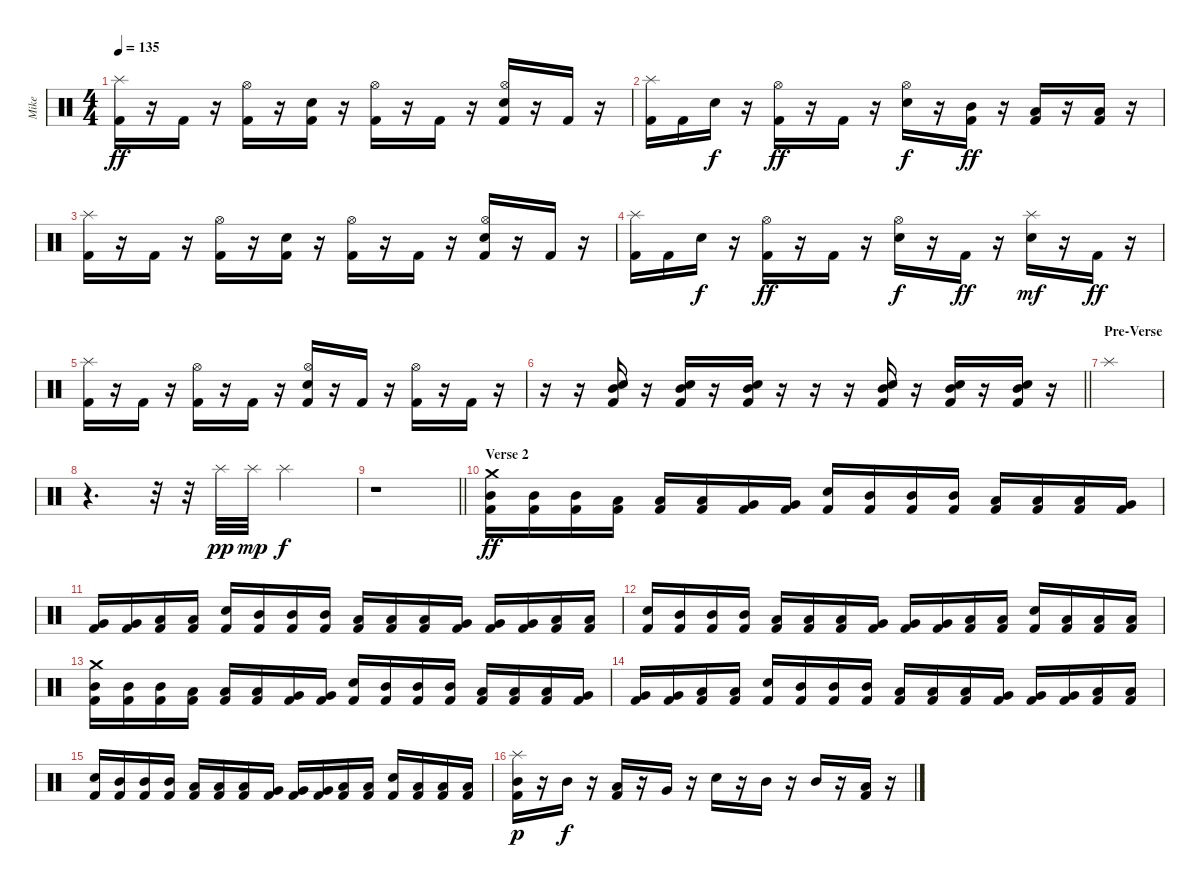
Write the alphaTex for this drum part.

\track ("Mike" "Mike") {instrument percussion}
\staff {score}
\articulation defaults
\ts (4 4)
\tempo 135
\clef neutral
\ks c
("Splash (hit)" "Kick (hit) 2").16{dy ff} r.16 "Kick (hit) 2".16 r.16 ("Hi-Hat (open)" "Kick (hit) 2").16 r.16 ("Snare (hit) 2" "Kick (hit) 2").16 r.16 ("Hi-Hat (open)" "Kick (hit) 2").16 r.16 "Kick (hit) 2".16 r.16 ("Hi-Hat (open)" "Snare (hit) 2" "Kick (hit) 2").16 r.16 "Kick (hit) 2".16 r.16 |
("Splash (hit)" "Kick (hit) 2").16 "Kick (hit) 2".16 "Snare (hit) 2".16{dy f} r.16 ("Hi-Hat (open)" "Kick (hit) 2").16{dy ff} r.16 "Kick (hit) 2".16 r.16 ("Hi-Hat (open)" "Snare (hit) 2").16{dy f} r.16 ("Mid Tom (hit)" "Kick (hit) 2").16{dy ff} r.16 ("Low Tom (hit)" "Kick (hit) 2").16 r.16 ("Low Tom (hit)" "Kick (hit) 2").16 r.16 |
("Splash (hit)" "Kick (hit) 2").16 r.16 "Kick (hit) 2".16 r.16 ("Hi-Hat (open)" "Kick (hit) 2").16 r.16 ("Snare (hit) 2" "Kick (hit) 2").16 r.16 ("Hi-Hat (open)" "Kick (hit) 2").16 r.16 "Kick (hit) 2".16 r.16 ("Hi-Hat (open)" "Snare (hit) 2" "Kick (hit) 2").16 r.16 "Kick (hit) 2".16 r.16 |
("Splash (hit)" "Kick (hit) 2").16 "Kick (hit) 2".16 "Snare (hit) 2".16{dy f} r.16 ("Hi-Hat (open)" "Kick (hit) 2").16{dy ff} r.16 "Kick (hit) 2".16 r.16 ("Hi-Hat (open)" "Snare (hit) 2").16{dy f} r.16 "Kick (hit) 2".16{dy ff} r.16 ("Splash (hit)" "Snare (hit) 2").16{dy mf} r.16 "Kick (hit) 2".16{dy ff} r.16 |
("Splash (hit)" "Kick (hit) 2").16 r.16 "Kick (hit) 2".16 r.16 ("Hi-Hat (open)" "Kick (hit) 2").16 r.16 "Kick (hit) 2".16 r.16 ("Hi-Hat (open)" "Snare (hit) 2" "Kick (hit) 2").16 r.16 "Kick (hit) 2".16 r.16 ("Hi-Hat (open)" "Kick (hit) 2").16 r.16 "Kick (hit) 2".16 r.16 |
\barLineRight lightlight
r.16 r.16 ("Mid Tom (hit)" "Snare (hit) 2" "Kick (hit) 2").16 r.16 ("Mid Tom (hit)" "Snare (hit) 2" "Kick (hit) 2").16 r.16 ("Mid Tom (hit)" "Snare (hit) 2" "Kick (hit) 2").16 r.16 r.16 r.16 ("Mid Tom (hit)" "Snare (hit) 2" "Kick (hit) 2").16 r.16 ("Mid Tom (hit)" "Snare (hit) 2" "Kick (hit) 2").16 r.16 ("Mid Tom (hit)" "Snare (hit) 2" "Kick (hit) 2").16 r.16 |
\section ("" "Pre-Verse")
"Splash (hit)".1 |
r.4{d} r.32 r.32 "Splash (hit)".32{dy pp} "Splash (hit)".32{dy mp} "Splash (hit)".2{dy f} |
\barLineRight lightlight
r.1 |
\section ("" "Verse 2")
("Crash medium (hit)" "Mid Tom (hit)" "Kick (hit) 2").16{dy ff} ("Mid Tom (hit)" "Kick (hit) 2").16 ("Mid Tom (hit)" "Kick (hit) 2").16 ("Low Tom (hit)" "Kick (hit) 2").16 ("Low Tom (hit)" "Kick (hit) 2").16 ("Low Tom (hit)" "Kick (hit) 2").16 ("Very Low Tom (hit)" "Kick (hit) 2").16 ("Very Low Tom (hit)" "Kick (hit) 2").16 ("Snare (hit) 2" "Kick (hit) 2").16 ("Mid Tom (hit)" "Kick (hit) 2").16 ("Mid Tom (hit)" "Kick (hit) 2").16 ("Mid Tom (hit)" "Kick (hit) 2").16 ("Low Tom (hit)" "Kick (hit) 2").16 ("Low Tom (hit)" "Kick (hit) 2").16 ("Low Tom (hit)" "Kick (hit) 2").16 ("Very Low Tom (hit)" "Kick (hit) 2").16 |
("Very Low Tom (hit)" "Kick (hit) 2").16 ("Very Low Tom (hit)" "Kick (hit) 2").16 ("Low Floor Tom (hit)" "Kick (hit) 2").16 ("Low Floor Tom (hit)" "Kick (hit) 2").16 ("Snare (hit) 2" "Kick (hit) 2").16 ("Mid Tom (hit)" "Kick (hit) 2").16 ("Mid Tom (hit)" "Kick (hit) 2").16 ("Mid Tom (hit)" "Kick (hit) 2").16 ("Low Tom (hit)" "Kick (hit) 2").16 ("Low Tom (hit)" "Kick (hit) 2").16 ("Low Tom (hit)" "Kick (hit) 2").16 ("Very Low Tom (hit)" "Kick (hit) 2").16 ("Very Low Tom (hit)" "Kick (hit) 2").16 ("Very Low Tom (hit)" "Kick (hit) 2").16 ("Low Floor Tom (hit)" "Kick (hit) 2").16 ("Low Floor Tom (hit)" "Kick (hit) 2").16 |
("Snare (hit) 2" "Kick (hit) 2").16 ("Mid Tom (hit)" "Kick (hit) 2").16 ("Mid Tom (hit)" "Kick (hit) 2").16 ("Mid Tom (hit)" "Kick (hit) 2").16 ("Low Tom (hit)" "Kick (hit) 2").16 ("Low Tom (hit)" "Kick (hit) 2").16 ("Low Tom (hit)" "Kick (hit) 2").16 ("Very Low Tom (hit)" "Kick (hit) 2").16 ("Very Low Tom (hit)" "Kick (hit) 2").16 ("Very Low Tom (hit)" "Kick (hit) 2").16 ("Low Floor Tom (hit)" "Kick (hit) 2").16 ("Low Floor Tom (hit)" "Kick (hit) 2").16 ("Snare (hit) 2" "Kick (hit) 2").16 ("Low Tom (hit)" "Kick (hit) 2").16 ("Low Tom (hit)" "Kick (hit) 2").16 ("Low Tom (hit)" "Kick (hit) 2").16 |
("Crash medium (hit)" "Mid Tom (hit)" "Kick (hit) 2").16 ("Mid Tom (hit)" "Kick (hit) 2").16 ("Mid Tom (hit)" "Kick (hit) 2").16 ("Low Tom (hit)" "Kick (hit) 2").16 ("Low Tom (hit)" "Kick (hit) 2").16 ("Low Tom (hit)" "Kick (hit) 2").16 ("Very Low Tom (hit)" "Kick (hit) 2").16 ("Very Low Tom (hit)" "Kick (hit) 2").16 ("Snare (hit) 2" "Kick (hit) 2").16 ("Mid Tom (hit)" "Kick (hit) 2").16 ("Mid Tom (hit)" "Kick (hit) 2").16 ("Mid Tom (hit)" "Kick (hit) 2").16 ("Low Tom (hit)" "Kick (hit) 2").16 ("Low Tom (hit)" "Kick (hit) 2").16 ("Low Tom (hit)" "Kick (hit) 2").16 ("Very Low Tom (hit)" "Kick (hit) 2").16 |
("Very Low Tom (hit)" "Kick (hit) 2").16 ("Very Low Tom (hit)" "Kick (hit) 2").16 ("Low Floor Tom (hit)" "Kick (hit) 2").16 ("Low Floor Tom (hit)" "Kick (hit) 2").16 ("Snare (hit) 2" "Kick (hit) 2").16 ("Mid Tom (hit)" "Kick (hit) 2").16 ("Mid Tom (hit)" "Kick (hit) 2").16 ("Mid Tom (hit)" "Kick (hit) 2").16 ("Low Tom (hit)" "Kick (hit) 2").16 ("Low Tom (hit)" "Kick (hit) 2").16 ("Low Tom (hit)" "Kick (hit) 2").16 ("Very Low Tom (hit)" "Kick (hit) 2").16 ("Very Low Tom (hit)" "Kick (hit) 2").16 ("Very Low Tom (hit)" "Kick (hit) 2").16 ("Low Floor Tom (hit)" "Kick (hit) 2").16 ("Low Floor Tom (hit)" "Kick (hit) 2").16 |
("Snare (hit) 2" "Kick (hit) 2").16 ("Mid Tom (hit)" "Kick (hit) 2").16 ("Mid Tom (hit)" "Kick (hit) 2").16 ("Mid Tom (hit)" "Kick (hit) 2").16 ("Low Tom (hit)" "Kick (hit) 2").16 ("Low Tom (hit)" "Kick (hit) 2").16 ("Low Tom (hit)" "Kick (hit) 2").16 ("Very Low Tom (hit)" "Kick (hit) 2").16 ("Very Low Tom (hit)" "Kick (hit) 2").16 ("Very Low Tom (hit)" "Kick (hit) 2").16 ("Low Floor Tom (hit)" "Kick (hit) 2").16 ("Low Floor Tom (hit)" "Kick (hit) 2").16 ("Snare (hit) 2" "Kick (hit) 2").16 ("Low Tom (hit)" "Kick (hit) 2").16 ("Low Tom (hit)" "Kick (hit) 2").16 ("Low Tom (hit)" "Kick (hit) 2").16 |
("Splash (hit)" "Mid Tom (hit)" "Kick (hit) 2").16{dy p} r.16 "Mid Tom (hit)".16{dy f} r.16 ("Low Tom (hit)" "Kick (hit) 2").16 r.16 "Very Low Tom (hit)".16 r.16 "Snare (hit) 2".16 r.16 "Mid Tom (hit)".16 r.16 "Mid Tom (hit)".16 r.16 ("Low Tom (hit)" "Kick (hit) 2").16 r.16
